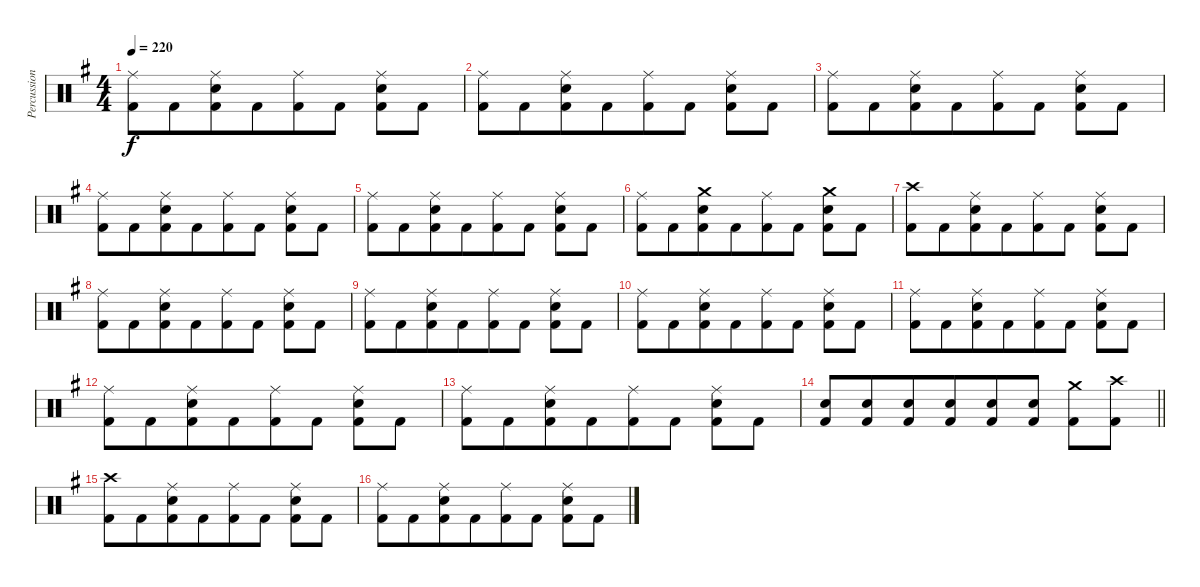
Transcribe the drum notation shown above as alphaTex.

\track ("Percussion" "Percussion") {instrument percussion}
\staff {score}
\articulation defaults
\ts (4 4)
\tempo 220
\clef neutral
\ks eminor
("Ride (middle)" "Kick (hit) 2").8{dy f} "Kick (hit) 2".8{beam merge} ("Ride (middle)" "Snare (hit) 2" "Kick (hit) 2").8{beam merge} "Kick (hit) 2".8{beam merge} ("Ride (middle)" "Kick (hit) 2").8{beam merge} "Kick (hit) 2".8 ("Ride (middle)" "Snare (hit) 2" "Kick (hit) 2").8 "Kick (hit) 2".8 |
("Ride (middle)" "Kick (hit) 2").8 "Kick (hit) 2".8{beam merge} ("Ride (middle)" "Snare (hit) 2" "Kick (hit) 2").8{beam merge} "Kick (hit) 2".8{beam merge} ("Ride (middle)" "Kick (hit) 2").8{beam merge} "Kick (hit) 2".8 ("Ride (middle)" "Snare (hit) 2" "Kick (hit) 2").8 "Kick (hit) 2".8 |
("Ride (middle)" "Kick (hit) 2").8 "Kick (hit) 2".8{beam merge} ("Ride (middle)" "Snare (hit) 2" "Kick (hit) 2").8{beam merge} "Kick (hit) 2".8{beam merge} ("Ride (middle)" "Kick (hit) 2").8{beam merge} "Kick (hit) 2".8 ("Ride (middle)" "Snare (hit) 2" "Kick (hit) 2").8 "Kick (hit) 2".8 |
("Ride (middle)" "Kick (hit) 2").8 "Kick (hit) 2".8{beam merge} ("Ride (middle)" "Snare (hit) 2" "Kick (hit) 2").8{beam merge} "Kick (hit) 2".8{beam merge} ("Ride (middle)" "Kick (hit) 2").8{beam merge} "Kick (hit) 2".8 ("Ride (middle)" "Snare (hit) 2" "Kick (hit) 2").8 "Kick (hit) 2".8 |
("Ride (middle)" "Kick (hit) 2").8 "Kick (hit) 2".8{beam merge} ("Ride (middle)" "Snare (hit) 2" "Kick (hit) 2").8{beam merge} "Kick (hit) 2".8{beam merge} ("Ride (middle)" "Kick (hit) 2").8{beam merge} "Kick (hit) 2".8 ("Ride (middle)" "Snare (hit) 2" "Kick (hit) 2").8 "Kick (hit) 2".8 |
("Ride (middle)" "Kick (hit) 2").8 "Kick (hit) 2".8{beam merge} ("Crash medium (hit)" "Snare (hit) 2" "Kick (hit) 2").8{beam merge} "Kick (hit) 2".8{beam merge} ("Ride (middle)" "Kick (hit) 2").8{beam merge} "Kick (hit) 2".8 ("Crash medium (hit)" "Snare (hit) 2" "Kick (hit) 2").8 "Kick (hit) 2".8 |
("Crash high (hit)" "Kick (hit) 2").8 "Kick (hit) 2".8{beam merge} ("Ride (middle)" "Snare (hit) 2" "Kick (hit) 2").8{beam merge} "Kick (hit) 2".8{beam merge} ("Ride (middle)" "Kick (hit) 2").8{beam merge} "Kick (hit) 2".8 ("Ride (middle)" "Snare (hit) 2" "Kick (hit) 2").8 "Kick (hit) 2".8 |
("Ride (middle)" "Kick (hit) 2").8 "Kick (hit) 2".8{beam merge} ("Ride (middle)" "Snare (hit) 2" "Kick (hit) 2").8{beam merge} "Kick (hit) 2".8{beam merge} ("Ride (middle)" "Kick (hit) 2").8{beam merge} "Kick (hit) 2".8 ("Ride (middle)" "Snare (hit) 2" "Kick (hit) 2").8 "Kick (hit) 2".8 |
("Ride (middle)" "Kick (hit) 2").8 "Kick (hit) 2".8{beam merge} ("Ride (middle)" "Snare (hit) 2" "Kick (hit) 2").8{beam merge} "Kick (hit) 2".8{beam merge} ("Ride (middle)" "Kick (hit) 2").8{beam merge} "Kick (hit) 2".8 ("Ride (middle)" "Snare (hit) 2" "Kick (hit) 2").8 "Kick (hit) 2".8 |
("Ride (middle)" "Kick (hit) 2").8 "Kick (hit) 2".8{beam merge} ("Ride (middle)" "Snare (hit) 2" "Kick (hit) 2").8{beam merge} "Kick (hit) 2".8{beam merge} ("Ride (middle)" "Kick (hit) 2").8{beam merge} "Kick (hit) 2".8 ("Ride (middle)" "Snare (hit) 2" "Kick (hit) 2").8 "Kick (hit) 2".8 |
("Ride (middle)" "Kick (hit) 2").8 "Kick (hit) 2".8{beam merge} ("Ride (middle)" "Snare (hit) 2" "Kick (hit) 2").8{beam merge} "Kick (hit) 2".8{beam merge} ("Ride (middle)" "Kick (hit) 2").8{beam merge} "Kick (hit) 2".8 ("Ride (middle)" "Snare (hit) 2" "Kick (hit) 2").8 "Kick (hit) 2".8 |
("Ride (middle)" "Kick (hit) 2").8 "Kick (hit) 2".8{beam merge} ("Ride (middle)" "Snare (hit) 2" "Kick (hit) 2").8{beam merge} "Kick (hit) 2".8{beam merge} ("Ride (middle)" "Kick (hit) 2").8{beam merge} "Kick (hit) 2".8 ("Ride (middle)" "Snare (hit) 2" "Kick (hit) 2").8 "Kick (hit) 2".8 |
("Ride (middle)" "Kick (hit) 2").8 "Kick (hit) 2".8{beam merge} ("Ride (middle)" "Snare (hit) 2" "Kick (hit) 2").8{beam merge} "Kick (hit) 2".8{beam merge} ("Ride (middle)" "Kick (hit) 2").8{beam merge} "Kick (hit) 2".8 ("Ride (middle)" "Snare (hit) 2" "Kick (hit) 2").8 "Kick (hit) 2".8 |
\barLineRight lightlight
("Snare (hit) 2" "Kick (hit) 2").8 ("Snare (hit) 2" "Kick (hit) 2").8{beam merge} ("Snare (hit) 2" "Kick (hit) 2").8{beam merge} ("Snare (hit) 2" "Kick (hit) 2").8{beam merge} ("Snare (hit) 2" "Kick (hit) 2").8{beam merge} ("Snare (hit) 2" "Kick (hit) 2").8 ("Crash medium (hit)" "Kick (hit) 2").8 ("Crash high (hit)" "Kick (hit) 2").8 |
("Crash high (hit)" "Kick (hit) 2").8 "Kick (hit) 2".8{beam merge} ("Ride (middle)" "Snare (hit) 2" "Kick (hit) 2").8{beam merge} "Kick (hit) 2".8{beam merge} ("Ride (middle)" "Kick (hit) 2").8{beam merge} "Kick (hit) 2".8 ("Ride (middle)" "Snare (hit) 2" "Kick (hit) 2").8 "Kick (hit) 2".8 |
("Ride (middle)" "Kick (hit) 2").8 "Kick (hit) 2".8{beam merge} ("Ride (middle)" "Snare (hit) 2" "Kick (hit) 2").8{beam merge} "Kick (hit) 2".8{beam merge} ("Ride (middle)" "Kick (hit) 2").8{beam merge} "Kick (hit) 2".8 ("Ride (middle)" "Snare (hit) 2" "Kick (hit) 2").8 "Kick (hit) 2".8
